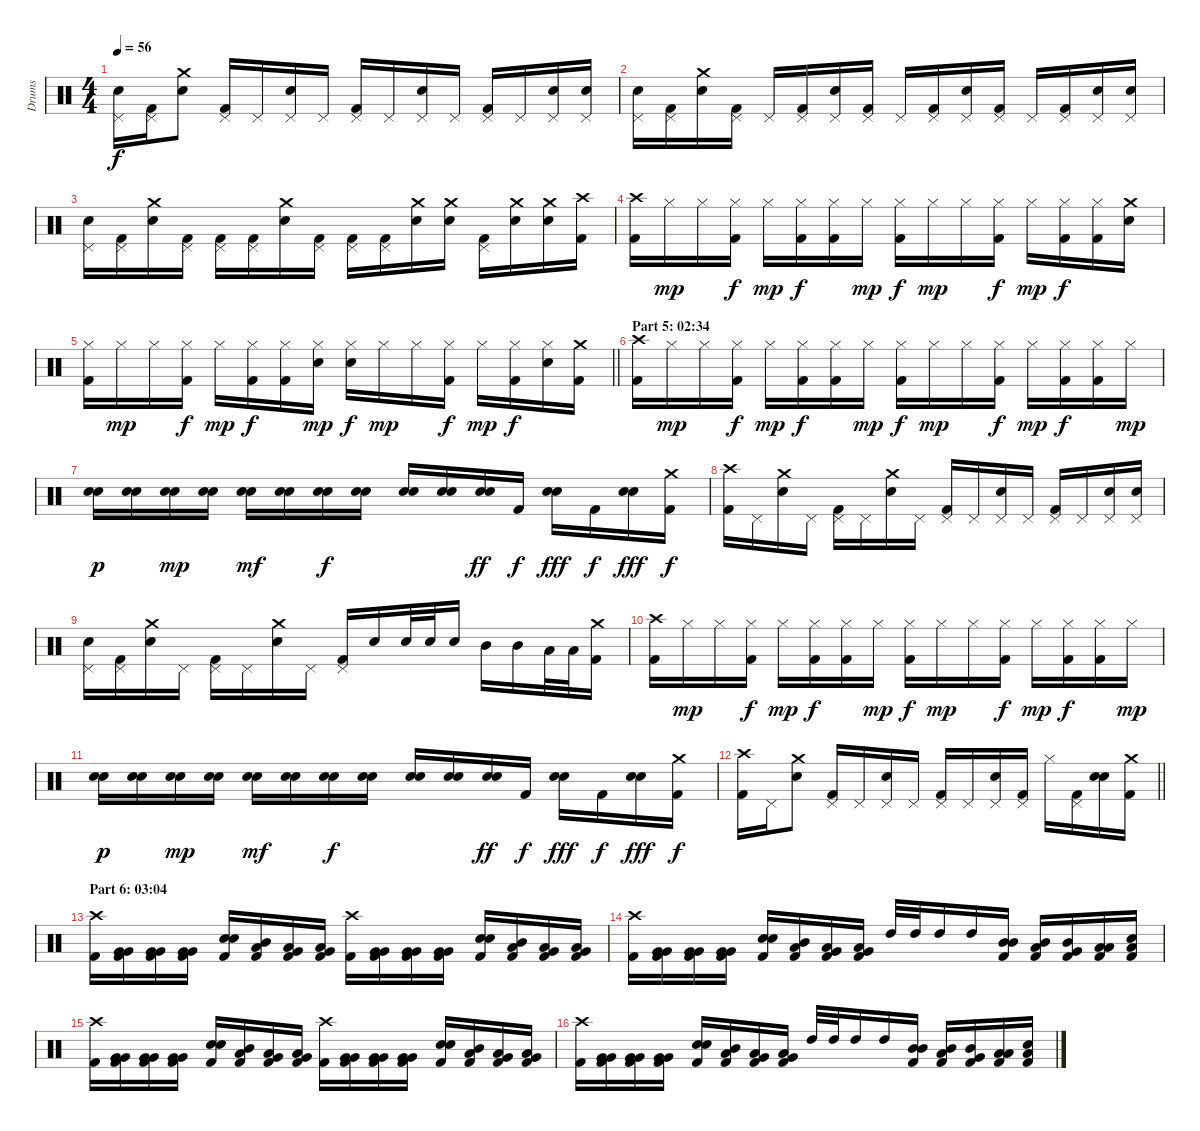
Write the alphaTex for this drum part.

\track ("Drums" "Drums") {instrument percussion}
\staff {score}
\articulation defaults
\ts (4 4)
\tempo 56
\clef neutral
\ks c
("Pedal Hi-Hat (hit)" "Electric Snare (hit)").16{dy f} ("Pedal Hi-Hat (hit)" "Kick (hit) 2").16 ("Crash medium (hit)" "Electric Snare (hit)").8 ("Pedal Hi-Hat (hit)" "Kick (hit) 2").16 "Pedal Hi-Hat (hit)".16 ("Pedal Hi-Hat (hit)" "Electric Snare (hit)").16 "Pedal Hi-Hat (hit)".16 ("Pedal Hi-Hat (hit)" "Kick (hit) 2").16 "Pedal Hi-Hat (hit)".16 ("Pedal Hi-Hat (hit)" "Electric Snare (hit)").16 "Pedal Hi-Hat (hit)".16 ("Pedal Hi-Hat (hit)" "Kick (hit) 2").16 "Pedal Hi-Hat (hit)".16 ("Pedal Hi-Hat (hit)" "Electric Snare (hit)").16 ("Pedal Hi-Hat (hit)" "Electric Snare (hit)").16 |
("Pedal Hi-Hat (hit)" "Electric Snare (hit)").16 ("Pedal Hi-Hat (hit)" "Kick (hit) 2").16 ("Crash medium (hit)" "Electric Snare (hit)").16 ("Pedal Hi-Hat (hit)" "Kick (hit) 2").16 "Pedal Hi-Hat (hit)".16 ("Pedal Hi-Hat (hit)" "Kick (hit) 2").16 ("Pedal Hi-Hat (hit)" "Electric Snare (hit)").16 ("Pedal Hi-Hat (hit)" "Kick (hit) 2").16 "Pedal Hi-Hat (hit)".16 ("Pedal Hi-Hat (hit)" "Kick (hit) 2").16 ("Pedal Hi-Hat (hit)" "Electric Snare (hit)").16 ("Pedal Hi-Hat (hit)" "Kick (hit) 2").16 "Pedal Hi-Hat (hit)".16 ("Pedal Hi-Hat (hit)" "Kick (hit) 2").16 ("Pedal Hi-Hat (hit)" "Electric Snare (hit)").16 ("Pedal Hi-Hat (hit)" "Electric Snare (hit)").16 |
("Pedal Hi-Hat (hit)" "Electric Snare (hit)").16 ("Pedal Hi-Hat (hit)" "Kick (hit) 2").16 ("Crash medium (hit)" "Electric Snare (hit)").16 ("Pedal Hi-Hat (hit)" "Kick (hit) 2").16 ("Pedal Hi-Hat (hit)" "Kick (hit) 2").16 ("Pedal Hi-Hat (hit)" "Kick (hit) 2").16 ("Crash medium (hit)" "Electric Snare (hit)").16 ("Pedal Hi-Hat (hit)" "Kick (hit) 2").16 ("Pedal Hi-Hat (hit)" "Kick (hit) 2").16 ("Pedal Hi-Hat (hit)" "Kick (hit) 2").16 ("Crash medium (hit)" "Electric Snare (hit)").16 ("Crash medium (hit)" "Electric Snare (hit)").16 ("Pedal Hi-Hat (hit)" "Kick (hit) 2").16 ("Crash medium (hit)" "Electric Snare (hit)").16 ("Crash medium (hit)" "Electric Snare (hit)").16 ("Crash high (hit)" "Kick (hit) 2").16 |
("Crash high (hit)" "Kick (hit) 2").16 "Hi-Hat (closed)".16{dy mp} "Hi-Hat (closed)".16 ("Hi-Hat (closed)" "Kick (hit) 2").16{dy f} "Hi-Hat (closed)".16{dy mp} ("Hi-Hat (closed)" "Kick (hit) 2").16{dy f} ("Hi-Hat (closed)" "Kick (hit) 2").16 "Hi-Hat (closed)".16{dy mp} ("Hi-Hat (closed)" "Kick (hit) 2").16{dy f} "Hi-Hat (closed)".16{dy mp} "Hi-Hat (closed)".16 ("Hi-Hat (closed)" "Kick (hit) 2").16{dy f} "Hi-Hat (closed)".16{dy mp} ("Hi-Hat (closed)" "Kick (hit) 2").16{dy f} ("Hi-Hat (closed)" "Kick (hit) 2").16 ("Crash medium (hit)" "Electric Snare (hit)").16 |
\barLineRight lightlight
("Hi-Hat (closed)" "Kick (hit) 2").16 "Hi-Hat (closed)".16{dy mp} "Hi-Hat (closed)".16 ("Hi-Hat (closed)" "Kick (hit) 2").16{dy f} "Hi-Hat (closed)".16{dy mp} ("Hi-Hat (closed)" "Kick (hit) 2").16{dy f} ("Hi-Hat (closed)" "Kick (hit) 2").16 ("Hi-Hat (closed)" "Electric Snare (hit)").16{dy mp} ("Hi-Hat (closed)" "Electric Snare (hit)").16{dy f} "Hi-Hat (closed)".16{dy mp} "Hi-Hat (closed)".16 ("Hi-Hat (closed)" "Kick (hit) 2").16{dy f} "Hi-Hat (closed)".16{dy mp} ("Hi-Hat (closed)" "Kick (hit) 2").16{dy f} ("Hi-Hat (closed)" "Electric Snare (hit)").16 ("Crash medium (hit)" "Kick (hit) 2").16 |
\section ("" "Part 5: 02:34")
("Crash high (hit)" "Kick (hit) 2").16 "Hi-Hat (closed)".16{dy mp} "Hi-Hat (closed)".16 ("Hi-Hat (closed)" "Kick (hit) 2").16{dy f} "Hi-Hat (closed)".16{dy mp} ("Hi-Hat (closed)" "Kick (hit) 2").16{dy f} ("Hi-Hat (closed)" "Kick (hit) 2").16 "Hi-Hat (closed)".16{dy mp} ("Hi-Hat (closed)" "Kick (hit) 2").16{dy f} "Hi-Hat (closed)".16{dy mp} "Hi-Hat (closed)".16 ("Hi-Hat (closed)" "Kick (hit) 2").16{dy f} "Hi-Hat (closed)".16{dy mp} ("Hi-Hat (closed)" "Kick (hit) 2").16{dy f} ("Hi-Hat (closed)" "Kick (hit) 2").16 "Hi-Hat (closed)".16{dy mp} |
("Electric Snare (hit)" "Electric Snare (hit)").16{dy p} ("Electric Snare (hit)" "Electric Snare (hit)").16 ("Electric Snare (hit)" "Electric Snare (hit)").16{dy mp} ("Electric Snare (hit)" "Electric Snare (hit)").16 ("Electric Snare (hit)" "Electric Snare (hit)").16{dy mf} ("Electric Snare (hit)" "Electric Snare (hit)").16 ("Electric Snare (hit)" "Electric Snare (hit)").16{dy f} ("Electric Snare (hit)" "Electric Snare (hit)").16 ("Electric Snare (hit)" "Electric Snare (hit)").16 ("Electric Snare (hit)" "Electric Snare (hit)").16 ("Electric Snare (hit)" "Electric Snare (hit)").16{dy ff} "Kick (hit) 2".16{dy f} ("Electric Snare (hit)" "Electric Snare (hit)").16{bd 30 dy fff} "Kick (hit) 2".16{dy f} ("Electric Snare (hit)" "Electric Snare (hit)").16{bd 30 dy fff} ("Crash medium (hit)" "Kick (hit) 2").16{dy f} |
("Crash high (hit)" "Kick (hit) 2").16 "Pedal Hi-Hat (hit)".16 ("Crash medium (hit)" "Electric Snare (hit)").16 "Pedal Hi-Hat (hit)".16 ("Pedal Hi-Hat (hit)" "Kick (hit) 2").16 "Pedal Hi-Hat (hit)".16 ("Crash medium (hit)" "Electric Snare (hit)").16 "Pedal Hi-Hat (hit)".16 ("Pedal Hi-Hat (hit)" "Kick (hit) 2").16 "Pedal Hi-Hat (hit)".16 ("Pedal Hi-Hat (hit)" "Electric Snare (hit)").16 "Pedal Hi-Hat (hit)".16 ("Pedal Hi-Hat (hit)" "Kick (hit) 2").16 "Pedal Hi-Hat (hit)".16 ("Pedal Hi-Hat (hit)" "Electric Snare (hit)").16 ("Pedal Hi-Hat (hit)" "Electric Snare (hit)").16 |
("Pedal Hi-Hat (hit)" "Electric Snare (hit)").16 ("Pedal Hi-Hat (hit)" "Kick (hit) 2").16 ("Crash medium (hit)" "Electric Snare (hit)").16 "Pedal Hi-Hat (hit)".16 ("Pedal Hi-Hat (hit)" "Kick (hit) 2").16 "Pedal Hi-Hat (hit)".16 ("Crash medium (hit)" "Electric Snare (hit)").16 "Pedal Hi-Hat (hit)".16 ("Pedal Hi-Hat (hit)" "Kick (hit) 2").16 "Electric Snare (hit)".16 "Electric Snare (hit)".32 "Electric Snare (hit)".32 "Electric Snare (hit)".16 "Mid Tom (hit)".16 "Mid Tom (hit)".16 "Low Tom (hit)".32 "Low Tom (hit)".32 ("Crash medium (hit)" "Kick (hit) 2").16 |
("Crash high (hit)" "Kick (hit) 2").16 "Hi-Hat (closed)".16{dy mp} "Hi-Hat (closed)".16 ("Hi-Hat (closed)" "Kick (hit) 2").16{dy f} "Hi-Hat (closed)".16{dy mp} ("Hi-Hat (closed)" "Kick (hit) 2").16{dy f} ("Hi-Hat (closed)" "Kick (hit) 2").16 "Hi-Hat (closed)".16{dy mp} ("Hi-Hat (closed)" "Kick (hit) 2").16{dy f} "Hi-Hat (closed)".16{dy mp} "Hi-Hat (closed)".16 ("Hi-Hat (closed)" "Kick (hit) 2").16{dy f} "Hi-Hat (closed)".16{dy mp} ("Hi-Hat (closed)" "Kick (hit) 2").16{dy f} ("Hi-Hat (closed)" "Kick (hit) 2").16 "Hi-Hat (closed)".16{dy mp} |
("Electric Snare (hit)" "Electric Snare (hit)").16{dy p} ("Electric Snare (hit)" "Electric Snare (hit)").16 ("Electric Snare (hit)" "Electric Snare (hit)").16{dy mp} ("Electric Snare (hit)" "Electric Snare (hit)").16 ("Electric Snare (hit)" "Electric Snare (hit)").16{dy mf} ("Electric Snare (hit)" "Electric Snare (hit)").16 ("Electric Snare (hit)" "Electric Snare (hit)").16{dy f} ("Electric Snare (hit)" "Electric Snare (hit)").16 ("Electric Snare (hit)" "Electric Snare (hit)").16 ("Electric Snare (hit)" "Electric Snare (hit)").16 ("Electric Snare (hit)" "Electric Snare (hit)").16{dy ff} "Kick (hit) 2".16{dy f} ("Electric Snare (hit)" "Electric Snare (hit)").16{bd 30 dy fff} "Kick (hit) 2".16{dy f} ("Electric Snare (hit)" "Electric Snare (hit)").16{bd 30 dy fff} ("Crash medium (hit)" "Kick (hit) 2").16{dy f} |
\barLineRight lightlight
("Crash high (hit)" "Kick (hit) 2").16 "Pedal Hi-Hat (hit)".16 ("Crash medium (hit)" "Electric Snare (hit)").8 ("Pedal Hi-Hat (hit)" "Kick (hit) 2").16 "Pedal Hi-Hat (hit)".16 ("Pedal Hi-Hat (hit)" "Electric Snare (hit)").16 "Pedal Hi-Hat (hit)".16 ("Pedal Hi-Hat (hit)" "Kick (hit) 2").16 "Pedal Hi-Hat (hit)".16 ("Pedal Hi-Hat (hit)" "Electric Snare (hit)").16 ("Pedal Hi-Hat (hit)" "Kick (hit) 2").16 "Hi-Hat (closed)".16 ("Pedal Hi-Hat (hit)" "Kick (hit) 2").16 ("Electric Snare (hit)" "Electric Snare (hit)").16{bd 30} ("Crash medium (hit)" "Kick (hit) 2").16 |
\section ("" "Part 6: 03:04")
("Crash high (hit)" "Kick (hit) 2").16 ("Very Low Tom (hit)" "Very Low Tom (hit)" "Kick (hit) 2").16 ("Very Low Tom (hit)" "Very Low Tom (hit)" "Kick (hit) 2").16 ("Very Low Tom (hit)" "Very Low Tom (hit)" "Kick (hit) 2").16 ("Electric Snare (hit)" "Electric Snare (hit)" "Kick (hit) 2").16{bd 30} ("Mid Tom (hit)" "Low Tom (hit)" "Kick (hit) 2").16 ("Low Tom (hit)" "Very Low Tom (hit)" "Kick (hit) 2").16 ("Low Tom (hit)" "Very Low Tom (hit)" "Kick (hit) 2").16 ("Crash high (hit)" "Kick (hit) 2").16 ("Very Low Tom (hit)" "Very Low Tom (hit)" "Kick (hit) 2").16 ("Very Low Tom (hit)" "Very Low Tom (hit)" "Kick (hit) 2").16 ("Very Low Tom (hit)" "Very Low Tom (hit)" "Kick (hit) 2").16 ("Electric Snare (hit)" "Electric Snare (hit)" "Kick (hit) 2").16{bd 30} ("Mid Tom (hit)" "Low Tom (hit)" "Kick (hit) 2").16 ("Low Tom (hit)" "Very Low Tom (hit)" "Kick (hit) 2").16 ("Low Tom (hit)" "Very Low Tom (hit)" "Kick (hit) 2").16 |
("Crash high (hit)" "Kick (hit) 2").16 ("Very Low Tom (hit)" "Very Low Tom (hit)" "Kick (hit) 2").16 ("Very Low Tom (hit)" "Very Low Tom (hit)" "Kick (hit) 2").16 ("Very Low Tom (hit)" "Very Low Tom (hit)" "Kick (hit) 2").16 ("Electric Snare (hit)" "Electric Snare (hit)" "Kick (hit) 2").16{bd 30} ("Mid Tom (hit)" "Low Tom (hit)" "Kick (hit) 2").16 ("Low Tom (hit)" "Very Low Tom (hit)" "Kick (hit) 2").16 ("Low Tom (hit)" "Very Low Tom (hit)" "Kick (hit) 2").16 "High Tom (hit)".32 "High Tom (hit)".32 "High Tom (hit)".16 "High Tom (hit)".16 ("Mid Tom (hit)" "Mid Tom (hit)" "Kick (hit) 2").16 ("Low Tom (hit)" "Mid Tom (hit)" "Kick (hit) 2").16 ("Very Low Tom (hit)" "Mid Tom (hit)" "Kick (hit) 2").16 ("Low Floor Tom (hit)" "Low Tom (hit)" "Kick (hit) 2").16 ("Low Floor Tom (hit)" "Electric Snare (hit)" "Kick (hit) 2").16 |
("Crash high (hit)" "Kick (hit) 2").16 ("Very Low Tom (hit)" "Very Low Tom (hit)" "Kick (hit) 2").16 ("Very Low Tom (hit)" "Very Low Tom (hit)" "Kick (hit) 2").16 ("Very Low Tom (hit)" "Very Low Tom (hit)" "Kick (hit) 2").16 ("Electric Snare (hit)" "Electric Snare (hit)" "Kick (hit) 2").16{bd 30} ("Mid Tom (hit)" "Low Tom (hit)" "Kick (hit) 2").16 ("Low Tom (hit)" "Very Low Tom (hit)" "Kick (hit) 2").16 ("Low Tom (hit)" "Very Low Tom (hit)" "Kick (hit) 2").16 ("Crash high (hit)" "Kick (hit) 2").16 ("Very Low Tom (hit)" "Very Low Tom (hit)" "Kick (hit) 2").16 ("Very Low Tom (hit)" "Very Low Tom (hit)" "Kick (hit) 2").16 ("Very Low Tom (hit)" "Very Low Tom (hit)" "Kick (hit) 2").16 ("Electric Snare (hit)" "Electric Snare (hit)" "Kick (hit) 2").16{bd 30} ("Mid Tom (hit)" "Low Tom (hit)" "Kick (hit) 2").16 ("Low Tom (hit)" "Very Low Tom (hit)" "Kick (hit) 2").16 ("Low Tom (hit)" "Very Low Tom (hit)" "Kick (hit) 2").16 |
("Crash high (hit)" "Kick (hit) 2").16 ("Very Low Tom (hit)" "Very Low Tom (hit)" "Kick (hit) 2").16 ("Very Low Tom (hit)" "Very Low Tom (hit)" "Kick (hit) 2").16 ("Very Low Tom (hit)" "Very Low Tom (hit)" "Kick (hit) 2").16 ("Electric Snare (hit)" "Electric Snare (hit)" "Kick (hit) 2").16{bd 30} ("Mid Tom (hit)" "Low Tom (hit)" "Kick (hit) 2").16 ("Low Tom (hit)" "Very Low Tom (hit)" "Kick (hit) 2").16 ("Low Tom (hit)" "Very Low Tom (hit)" "Kick (hit) 2").16 "High Tom (hit)".32 "High Tom (hit)".32 "High Tom (hit)".16 "High Tom (hit)".16 ("Mid Tom (hit)" "Mid Tom (hit)" "Kick (hit) 2").16 ("Low Tom (hit)" "Mid Tom (hit)" "Kick (hit) 2").16 ("Very Low Tom (hit)" "Mid Tom (hit)" "Kick (hit) 2").16 ("Low Floor Tom (hit)" "Low Tom (hit)" "Kick (hit) 2").16 ("Low Floor Tom (hit)" "Electric Snare (hit)" "Kick (hit) 2").16
